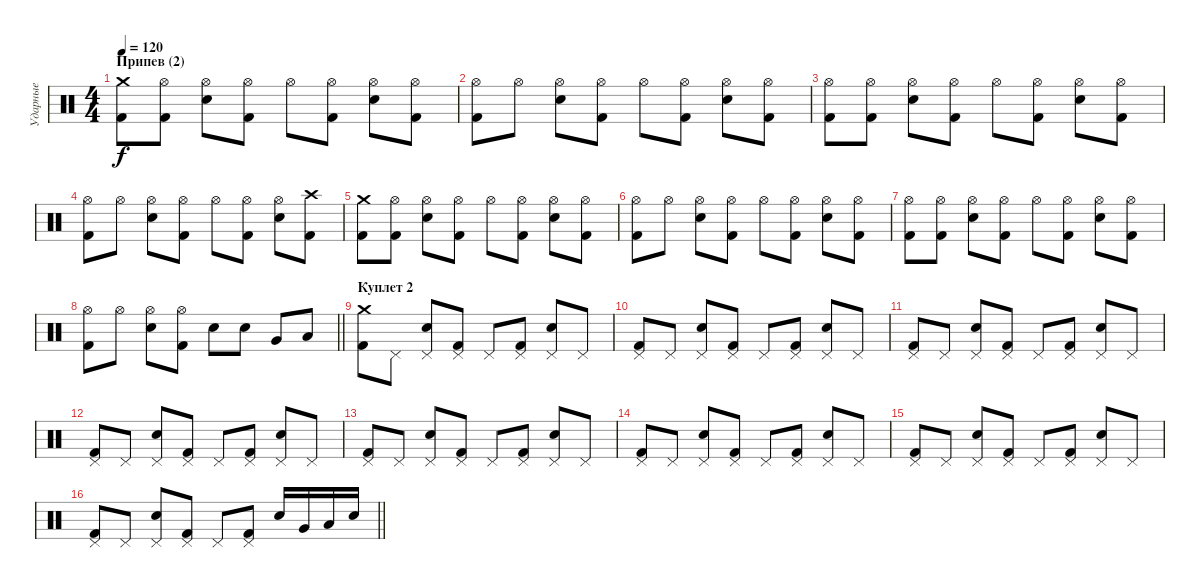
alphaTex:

\track ("Ударные" "Ударные") {instrument percussion}
\staff {score}
\articulation defaults
\ts (4 4)
\section ("" "Припев (2)")
\tempo 120
\clef neutral
\ks c
("Crash medium (hit)" "Kick (hit) 2").8{dy f} ("Hi-Hat (open)" "Kick (hit) 2").8 ("Hi-Hat (open)" "Snare (hit) 2").8 ("Hi-Hat (open)" "Kick (hit) 2").8 "Hi-Hat (open)".8 ("Hi-Hat (open)" "Kick (hit) 2").8 ("Hi-Hat (open)" "Snare (hit) 2").8 ("Hi-Hat (open)" "Kick (hit) 2").8 |
("Hi-Hat (open)" "Kick (hit) 2").8 "Hi-Hat (open)".8 ("Hi-Hat (open)" "Snare (hit) 2").8 ("Hi-Hat (open)" "Kick (hit) 2").8 "Hi-Hat (open)".8 ("Hi-Hat (open)" "Kick (hit) 2").8 ("Hi-Hat (open)" "Snare (hit) 2").8 ("Hi-Hat (open)" "Kick (hit) 2").8 |
("Hi-Hat (open)" "Kick (hit) 2").8 ("Hi-Hat (open)" "Kick (hit) 2").8 ("Hi-Hat (open)" "Snare (hit) 2").8 ("Hi-Hat (open)" "Kick (hit) 2").8 "Hi-Hat (open)".8 ("Hi-Hat (open)" "Kick (hit) 2").8 ("Hi-Hat (open)" "Snare (hit) 2").8 ("Hi-Hat (open)" "Kick (hit) 2").8 |
("Hi-Hat (open)" "Kick (hit) 2").8 "Hi-Hat (open)".8 ("Hi-Hat (open)" "Snare (hit) 2").8 ("Hi-Hat (open)" "Kick (hit) 2").8 "Hi-Hat (open)".8 ("Hi-Hat (open)" "Kick (hit) 2").8 ("Hi-Hat (open)" "Snare (hit) 2").8 ("Crash high (hit)" "Kick (hit) 2").8 |
("Crash medium (hit)" "Kick (hit) 2").8 ("Hi-Hat (open)" "Kick (hit) 2").8 ("Hi-Hat (open)" "Snare (hit) 2").8 ("Hi-Hat (open)" "Kick (hit) 2").8 "Hi-Hat (open)".8 ("Hi-Hat (open)" "Kick (hit) 2").8 ("Hi-Hat (open)" "Snare (hit) 2").8 ("Hi-Hat (open)" "Kick (hit) 2").8 |
("Hi-Hat (open)" "Kick (hit) 2").8 "Hi-Hat (open)".8 ("Hi-Hat (open)" "Snare (hit) 2").8 ("Hi-Hat (open)" "Kick (hit) 2").8 "Hi-Hat (open)".8 ("Hi-Hat (open)" "Kick (hit) 2").8 ("Hi-Hat (open)" "Snare (hit) 2").8 ("Hi-Hat (open)" "Kick (hit) 2").8 |
("Hi-Hat (open)" "Kick (hit) 2").8 ("Hi-Hat (open)" "Kick (hit) 2").8 ("Hi-Hat (open)" "Snare (hit) 2").8 ("Hi-Hat (open)" "Kick (hit) 2").8 "Hi-Hat (open)".8 ("Hi-Hat (open)" "Kick (hit) 2").8 ("Hi-Hat (open)" "Snare (hit) 2").8 ("Hi-Hat (open)" "Kick (hit) 2").8 |
\barLineRight lightlight
("Hi-Hat (open)" "Kick (hit) 2").8 "Hi-Hat (open)".8 ("Hi-Hat (open)" "Snare (hit) 2").8 ("Hi-Hat (open)" "Kick (hit) 2").8 "Snare (hit) 2".8 "Snare (hit) 2".8 "Very Low Tom (hit)".8 "Low Tom (hit)".8 |
\section ("" "Куплет 2")
("Crash medium (hit)" "Kick (hit) 2").8 "Pedal Hi-Hat (hit)".8 ("Pedal Hi-Hat (hit)" "Snare (hit) 2").8 ("Pedal Hi-Hat (hit)" "Kick (hit) 2").8 "Pedal Hi-Hat (hit)".8 ("Pedal Hi-Hat (hit)" "Kick (hit) 2").8 ("Pedal Hi-Hat (hit)" "Snare (hit) 2").8 "Pedal Hi-Hat (hit)".8 |
("Pedal Hi-Hat (hit)" "Kick (hit) 2").8 "Pedal Hi-Hat (hit)".8 ("Pedal Hi-Hat (hit)" "Snare (hit) 2").8 ("Pedal Hi-Hat (hit)" "Kick (hit) 2").8 "Pedal Hi-Hat (hit)".8 ("Pedal Hi-Hat (hit)" "Kick (hit) 2").8 ("Pedal Hi-Hat (hit)" "Snare (hit) 2").8 "Pedal Hi-Hat (hit)".8 |
("Pedal Hi-Hat (hit)" "Kick (hit) 2").8 "Pedal Hi-Hat (hit)".8 ("Pedal Hi-Hat (hit)" "Snare (hit) 2").8 ("Pedal Hi-Hat (hit)" "Kick (hit) 2").8 "Pedal Hi-Hat (hit)".8 ("Pedal Hi-Hat (hit)" "Kick (hit) 2").8 ("Pedal Hi-Hat (hit)" "Snare (hit) 2").8 "Pedal Hi-Hat (hit)".8 |
("Pedal Hi-Hat (hit)" "Kick (hit) 2").8 "Pedal Hi-Hat (hit)".8 ("Pedal Hi-Hat (hit)" "Snare (hit) 2").8 ("Pedal Hi-Hat (hit)" "Kick (hit) 2").8 "Pedal Hi-Hat (hit)".8 ("Pedal Hi-Hat (hit)" "Kick (hit) 2").8 ("Pedal Hi-Hat (hit)" "Snare (hit) 2").8 "Pedal Hi-Hat (hit)".8 |
("Pedal Hi-Hat (hit)" "Kick (hit) 2").8 "Pedal Hi-Hat (hit)".8 ("Pedal Hi-Hat (hit)" "Snare (hit) 2").8 ("Pedal Hi-Hat (hit)" "Kick (hit) 2").8 "Pedal Hi-Hat (hit)".8 ("Pedal Hi-Hat (hit)" "Kick (hit) 2").8 ("Pedal Hi-Hat (hit)" "Snare (hit) 2").8 "Pedal Hi-Hat (hit)".8 |
("Pedal Hi-Hat (hit)" "Kick (hit) 2").8 "Pedal Hi-Hat (hit)".8 ("Pedal Hi-Hat (hit)" "Snare (hit) 2").8 ("Pedal Hi-Hat (hit)" "Kick (hit) 2").8 "Pedal Hi-Hat (hit)".8 ("Pedal Hi-Hat (hit)" "Kick (hit) 2").8 ("Pedal Hi-Hat (hit)" "Snare (hit) 2").8 "Pedal Hi-Hat (hit)".8 |
("Pedal Hi-Hat (hit)" "Kick (hit) 2").8 "Pedal Hi-Hat (hit)".8 ("Pedal Hi-Hat (hit)" "Snare (hit) 2").8 ("Pedal Hi-Hat (hit)" "Kick (hit) 2").8 "Pedal Hi-Hat (hit)".8 ("Pedal Hi-Hat (hit)" "Kick (hit) 2").8 ("Pedal Hi-Hat (hit)" "Snare (hit) 2").8 "Pedal Hi-Hat (hit)".8 |
\barLineRight lightlight
("Pedal Hi-Hat (hit)" "Kick (hit) 2").8 "Pedal Hi-Hat (hit)".8 ("Pedal Hi-Hat (hit)" "Snare (hit) 2").8 ("Pedal Hi-Hat (hit)" "Kick (hit) 2").8 "Pedal Hi-Hat (hit)".8 ("Pedal Hi-Hat (hit)" "Kick (hit) 2").8 "Snare (hit) 2".16 "Very Low Tom (hit)".16 "Low Tom (hit)".16 "Snare (hit) 2".16
